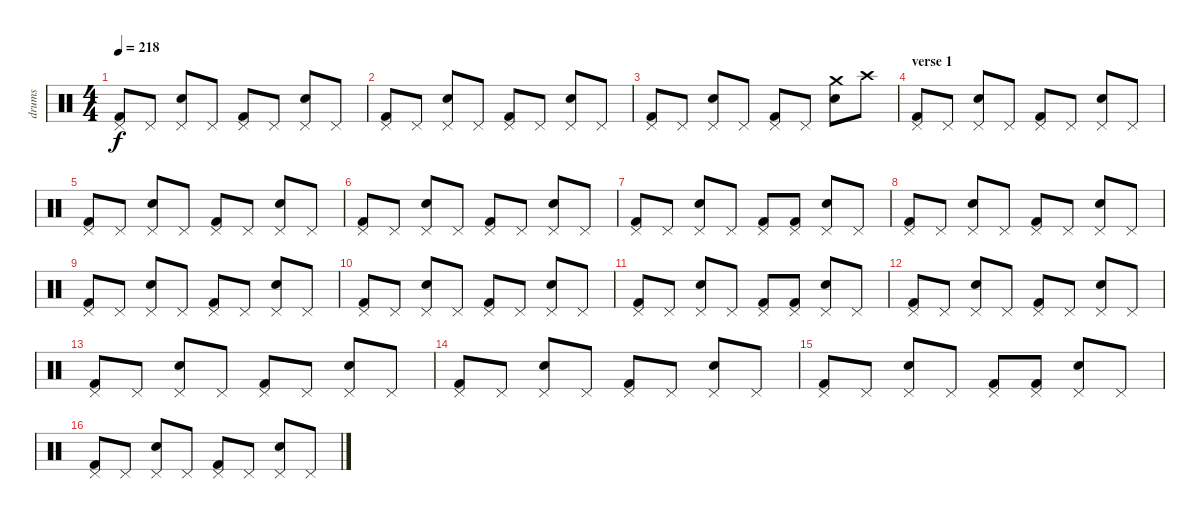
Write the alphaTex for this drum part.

\track ("drums" "drums") {instrument percussion}
\staff {score}
\articulation defaults
\ts (4 4)
\tempo 218
\clef neutral
\ks c
("Kick (hit) 2" "Pedal Hi-Hat (hit)").8{dy f} "Pedal Hi-Hat (hit)".8 ("Snare (hit) 2" "Pedal Hi-Hat (hit)").8 "Pedal Hi-Hat (hit)".8 ("Kick (hit) 2" "Pedal Hi-Hat (hit)").8 "Pedal Hi-Hat (hit)".8 ("Snare (hit) 2" "Pedal Hi-Hat (hit)").8 "Pedal Hi-Hat (hit)".8 |
("Kick (hit) 2" "Pedal Hi-Hat (hit)").8 "Pedal Hi-Hat (hit)".8 ("Snare (hit) 2" "Pedal Hi-Hat (hit)").8 "Pedal Hi-Hat (hit)".8 ("Kick (hit) 2" "Pedal Hi-Hat (hit)").8 "Pedal Hi-Hat (hit)".8 ("Snare (hit) 2" "Pedal Hi-Hat (hit)").8 "Pedal Hi-Hat (hit)".8 |
("Kick (hit) 2" "Pedal Hi-Hat (hit)").8 "Pedal Hi-Hat (hit)".8 ("Snare (hit) 2" "Pedal Hi-Hat (hit)").8 "Pedal Hi-Hat (hit)".8 ("Kick (hit) 2" "Pedal Hi-Hat (hit)").8 "Pedal Hi-Hat (hit)".8 ("Snare (hit) 2" "Crash medium (hit)").8 "Crash high (hit)".8 |
\section ("" "verse 1")
("Kick (hit) 2" "Pedal Hi-Hat (hit)").8 "Pedal Hi-Hat (hit)".8 ("Snare (hit) 2" "Pedal Hi-Hat (hit)").8 "Pedal Hi-Hat (hit)".8 ("Kick (hit) 2" "Pedal Hi-Hat (hit)").8 "Pedal Hi-Hat (hit)".8 ("Snare (hit) 2" "Pedal Hi-Hat (hit)").8 "Pedal Hi-Hat (hit)".8 |
("Kick (hit) 2" "Pedal Hi-Hat (hit)").8 "Pedal Hi-Hat (hit)".8 ("Snare (hit) 2" "Pedal Hi-Hat (hit)").8 "Pedal Hi-Hat (hit)".8 ("Kick (hit) 2" "Pedal Hi-Hat (hit)").8 "Pedal Hi-Hat (hit)".8 ("Snare (hit) 2" "Pedal Hi-Hat (hit)").8 "Pedal Hi-Hat (hit)".8 |
("Kick (hit) 2" "Pedal Hi-Hat (hit)").8 "Pedal Hi-Hat (hit)".8 ("Snare (hit) 2" "Pedal Hi-Hat (hit)").8 "Pedal Hi-Hat (hit)".8 ("Kick (hit) 2" "Pedal Hi-Hat (hit)").8 "Pedal Hi-Hat (hit)".8 ("Snare (hit) 2" "Pedal Hi-Hat (hit)").8 "Pedal Hi-Hat (hit)".8 |
("Kick (hit) 2" "Pedal Hi-Hat (hit)").8 "Pedal Hi-Hat (hit)".8 ("Snare (hit) 2" "Pedal Hi-Hat (hit)").8 "Pedal Hi-Hat (hit)".8 ("Kick (hit) 2" "Pedal Hi-Hat (hit)").8 ("Kick (hit) 2" "Pedal Hi-Hat (hit)").8 ("Snare (hit) 2" "Pedal Hi-Hat (hit)").8 "Pedal Hi-Hat (hit)".8 |
("Kick (hit) 2" "Pedal Hi-Hat (hit)").8 "Pedal Hi-Hat (hit)".8 ("Snare (hit) 2" "Pedal Hi-Hat (hit)").8 "Pedal Hi-Hat (hit)".8 ("Kick (hit) 2" "Pedal Hi-Hat (hit)").8 "Pedal Hi-Hat (hit)".8 ("Snare (hit) 2" "Pedal Hi-Hat (hit)").8 "Pedal Hi-Hat (hit)".8 |
("Kick (hit) 2" "Pedal Hi-Hat (hit)").8 "Pedal Hi-Hat (hit)".8 ("Snare (hit) 2" "Pedal Hi-Hat (hit)").8 "Pedal Hi-Hat (hit)".8 ("Kick (hit) 2" "Pedal Hi-Hat (hit)").8 "Pedal Hi-Hat (hit)".8 ("Snare (hit) 2" "Pedal Hi-Hat (hit)").8 "Pedal Hi-Hat (hit)".8 |
("Kick (hit) 2" "Pedal Hi-Hat (hit)").8 "Pedal Hi-Hat (hit)".8 ("Snare (hit) 2" "Pedal Hi-Hat (hit)").8 "Pedal Hi-Hat (hit)".8 ("Kick (hit) 2" "Pedal Hi-Hat (hit)").8 "Pedal Hi-Hat (hit)".8 ("Snare (hit) 2" "Pedal Hi-Hat (hit)").8 "Pedal Hi-Hat (hit)".8 |
("Kick (hit) 2" "Pedal Hi-Hat (hit)").8 "Pedal Hi-Hat (hit)".8 ("Snare (hit) 2" "Pedal Hi-Hat (hit)").8 "Pedal Hi-Hat (hit)".8 ("Kick (hit) 2" "Pedal Hi-Hat (hit)").8 ("Kick (hit) 2" "Pedal Hi-Hat (hit)").8 ("Snare (hit) 2" "Pedal Hi-Hat (hit)").8 "Pedal Hi-Hat (hit)".8 |
("Kick (hit) 2" "Pedal Hi-Hat (hit)").8 "Pedal Hi-Hat (hit)".8 ("Snare (hit) 2" "Pedal Hi-Hat (hit)").8 "Pedal Hi-Hat (hit)".8 ("Kick (hit) 2" "Pedal Hi-Hat (hit)").8 "Pedal Hi-Hat (hit)".8 ("Snare (hit) 2" "Pedal Hi-Hat (hit)").8 "Pedal Hi-Hat (hit)".8 |
("Kick (hit) 2" "Pedal Hi-Hat (hit)").8 "Pedal Hi-Hat (hit)".8 ("Snare (hit) 2" "Pedal Hi-Hat (hit)").8 "Pedal Hi-Hat (hit)".8 ("Kick (hit) 2" "Pedal Hi-Hat (hit)").8 "Pedal Hi-Hat (hit)".8 ("Snare (hit) 2" "Pedal Hi-Hat (hit)").8 "Pedal Hi-Hat (hit)".8 |
("Kick (hit) 2" "Pedal Hi-Hat (hit)").8 "Pedal Hi-Hat (hit)".8 ("Snare (hit) 2" "Pedal Hi-Hat (hit)").8 "Pedal Hi-Hat (hit)".8 ("Kick (hit) 2" "Pedal Hi-Hat (hit)").8 "Pedal Hi-Hat (hit)".8 ("Snare (hit) 2" "Pedal Hi-Hat (hit)").8 "Pedal Hi-Hat (hit)".8 |
("Kick (hit) 2" "Pedal Hi-Hat (hit)").8 "Pedal Hi-Hat (hit)".8 ("Snare (hit) 2" "Pedal Hi-Hat (hit)").8 "Pedal Hi-Hat (hit)".8 ("Kick (hit) 2" "Pedal Hi-Hat (hit)").8 ("Kick (hit) 2" "Pedal Hi-Hat (hit)").8 ("Snare (hit) 2" "Pedal Hi-Hat (hit)").8 "Pedal Hi-Hat (hit)".8 |
("Kick (hit) 2" "Pedal Hi-Hat (hit)").8 "Pedal Hi-Hat (hit)".8 ("Snare (hit) 2" "Pedal Hi-Hat (hit)").8 "Pedal Hi-Hat (hit)".8 ("Kick (hit) 2" "Pedal Hi-Hat (hit)").8 "Pedal Hi-Hat (hit)".8 ("Snare (hit) 2" "Pedal Hi-Hat (hit)").8 "Pedal Hi-Hat (hit)".8
